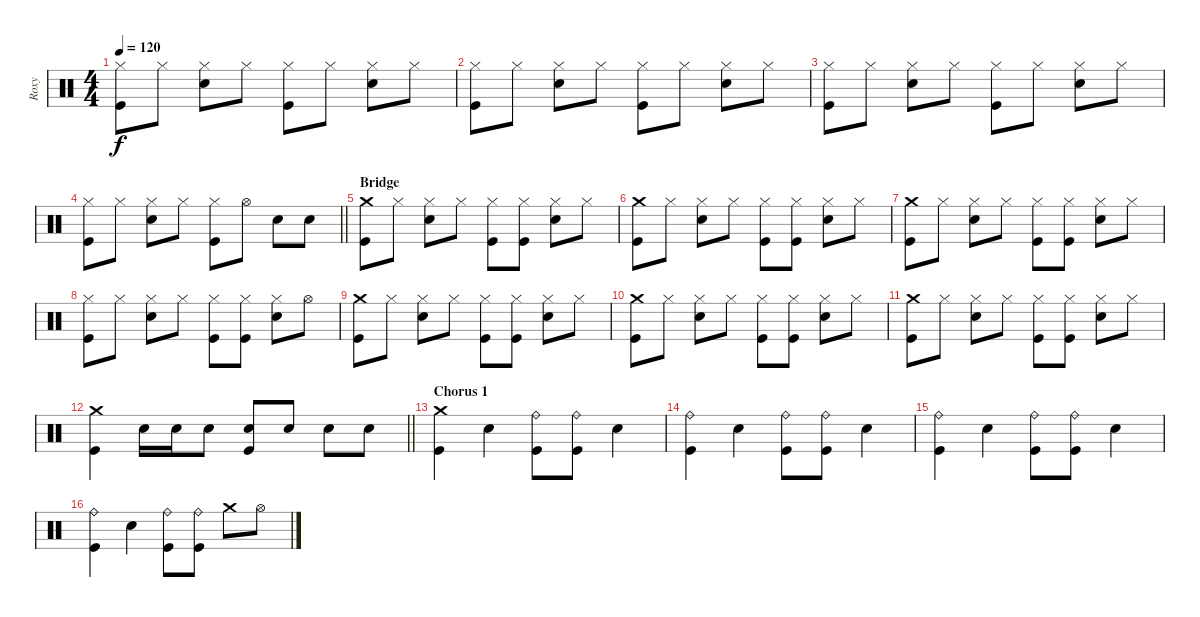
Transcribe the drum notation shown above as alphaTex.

\track ("Roxy" "Roxy") {instrument percussion}
\staff {score}
\articulation defaults
\ts (4 4)
\tempo 120
\clef neutral
\ks c
("Hi-Hat (closed)" "Kick (hit)").8{dy f} "Hi-Hat (closed)".8 ("Hi-Hat (closed)" "Electric Snare (hit)").8 "Hi-Hat (closed)".8 ("Hi-Hat (closed)" "Kick (hit)").8 "Hi-Hat (closed)".8 ("Hi-Hat (closed)" "Electric Snare (hit)").8 "Hi-Hat (closed)".8 |
("Hi-Hat (closed)" "Kick (hit)").8 "Hi-Hat (closed)".8 ("Hi-Hat (closed)" "Electric Snare (hit)").8 "Hi-Hat (closed)".8 ("Hi-Hat (closed)" "Kick (hit)").8 "Hi-Hat (closed)".8 ("Hi-Hat (closed)" "Electric Snare (hit)").8 "Hi-Hat (closed)".8 |
("Hi-Hat (closed)" "Kick (hit)").8 "Hi-Hat (closed)".8 ("Hi-Hat (closed)" "Electric Snare (hit)").8 "Hi-Hat (closed)".8 ("Hi-Hat (closed)" "Kick (hit)").8 "Hi-Hat (closed)".8 ("Hi-Hat (closed)" "Electric Snare (hit)").8 "Hi-Hat (closed)".8 |
\barLineRight lightlight
("Hi-Hat (closed)" "Kick (hit)").8 "Hi-Hat (closed)".8 ("Hi-Hat (closed)" "Electric Snare (hit)").8 "Hi-Hat (closed)".8 ("Hi-Hat (closed)" "Kick (hit)").8 "Hi-Hat (open)".8 "Electric Snare (hit)".8 "Electric Snare (hit)".8 |
\section ("" "Bridge")
("Crash medium (hit)" "Kick (hit)").8 "Hi-Hat (closed)".8 ("Hi-Hat (closed)" "Electric Snare (hit)").8 "Hi-Hat (closed)".8 ("Hi-Hat (closed)" "Kick (hit)").8 ("Hi-Hat (closed)" "Kick (hit)").8 ("Hi-Hat (closed)" "Electric Snare (hit)").8 "Hi-Hat (closed)".8 |
("Crash medium (hit)" "Kick (hit)").8 "Hi-Hat (closed)".8 ("Hi-Hat (closed)" "Electric Snare (hit)").8 "Hi-Hat (closed)".8 ("Hi-Hat (closed)" "Kick (hit)").8 ("Hi-Hat (closed)" "Kick (hit)").8 ("Hi-Hat (closed)" "Electric Snare (hit)").8 "Hi-Hat (closed)".8 |
("Crash medium (hit)" "Kick (hit)").8 "Hi-Hat (closed)".8 ("Hi-Hat (closed)" "Electric Snare (hit)").8 "Hi-Hat (closed)".8 ("Hi-Hat (closed)" "Kick (hit)").8 ("Hi-Hat (closed)" "Kick (hit)").8 ("Hi-Hat (closed)" "Electric Snare (hit)").8 "Hi-Hat (closed)".8 |
("Hi-Hat (closed)" "Kick (hit)").8 "Hi-Hat (closed)".8 ("Hi-Hat (closed)" "Electric Snare (hit)").8 "Hi-Hat (closed)".8 ("Hi-Hat (closed)" "Kick (hit)").8 ("Hi-Hat (closed)" "Kick (hit)").8 ("Hi-Hat (closed)" "Electric Snare (hit)").8 "Hi-Hat (open)".8 |
("Crash medium (hit)" "Kick (hit)").8 "Hi-Hat (closed)".8 ("Hi-Hat (closed)" "Electric Snare (hit)").8 "Hi-Hat (closed)".8 ("Hi-Hat (closed)" "Kick (hit)").8 ("Hi-Hat (closed)" "Kick (hit)").8 ("Hi-Hat (closed)" "Electric Snare (hit)").8 "Hi-Hat (closed)".8 |
("Crash medium (hit)" "Kick (hit)").8 "Hi-Hat (closed)".8 ("Hi-Hat (closed)" "Electric Snare (hit)").8 "Hi-Hat (closed)".8 ("Hi-Hat (closed)" "Kick (hit)").8 ("Hi-Hat (closed)" "Kick (hit)").8 ("Hi-Hat (closed)" "Electric Snare (hit)").8 "Hi-Hat (closed)".8 |
("Crash medium (hit)" "Kick (hit)").8 "Hi-Hat (closed)".8 ("Hi-Hat (closed)" "Electric Snare (hit)").8 "Hi-Hat (closed)".8 ("Hi-Hat (closed)" "Kick (hit)").8 ("Hi-Hat (closed)" "Kick (hit)").8 ("Hi-Hat (closed)" "Electric Snare (hit)").8 "Hi-Hat (closed)".8 |
\barLineRight lightlight
("Crash medium (hit)" "Kick (hit)").4 "Electric Snare (hit)".16 "Electric Snare (hit)".16 "Electric Snare (hit)".8 ("Electric Snare (hit)" "Kick (hit)").8 "Electric Snare (hit)".8 "Electric Snare (hit)".8 "Electric Snare (hit)".8 |
\section ("" "Chorus 1")
("Crash medium (hit)" "Kick (hit)").4 "Electric Snare (hit)".4 ("Ride (bell)" "Kick (hit)").8 ("Ride (bell)" "Kick (hit)").8 "Electric Snare (hit)".4 |
("Ride (bell)" "Kick (hit)").4 "Electric Snare (hit)".4 ("Ride (bell)" "Kick (hit)").8 ("Ride (bell)" "Kick (hit)").8 "Electric Snare (hit)".4 |
("Ride (bell)" "Kick (hit)").4 "Electric Snare (hit)".4 ("Ride (bell)" "Kick (hit)").8 ("Ride (bell)" "Kick (hit)").8 "Electric Snare (hit)".4 |
("Ride (bell)" "Kick (hit)").4 "Electric Snare (hit)".4 ("Ride (bell)" "Kick (hit)").8 ("Ride (bell)" "Kick (hit)").8 "Crash medium (hit)".8 "Hi-Hat (open)".8
